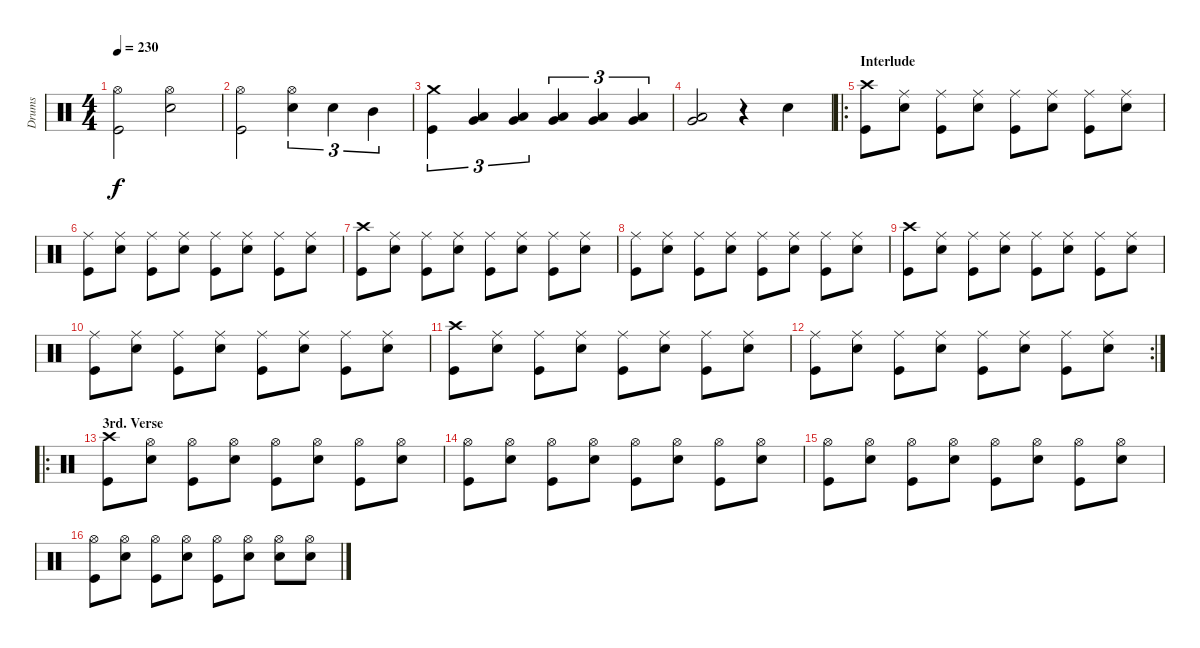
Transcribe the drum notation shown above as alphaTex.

\track ("Drums" "Drums") {instrument percussion}
\staff {score}
\articulation defaults
\ts (4 4)
\tempo 230
\clef neutral
\ks c
("Hi-Hat (open)" "Kick (hit)").2{dy f} ("Hi-Hat (open)" "Electric Snare (hit)").2 |
("Hi-Hat (open)" "Kick (hit)").2 ("Hi-Hat (open)" "Electric Snare (hit)").4{tu (3 2)} "Electric Snare (hit)".4{tu (3 2)} "Mid Tom (hit)".4{tu (3 2)} |
("Crash medium (hit)" "Kick (hit)").4{tu (3 2)} ("Very Low Tom (hit)" "Low Tom (hit)").4{tu (3 2)} ("Very Low Tom (hit)" "Low Tom (hit)").4{tu (3 2)} ("Very Low Tom (hit)" "Low Tom (hit)").4{tu (3 2)} ("Very Low Tom (hit)" "Low Tom (hit)").4{tu (3 2)} ("Very Low Tom (hit)" "Low Tom (hit)").4{tu (3 2)} |
("Very Low Tom (hit)" "Low Tom (hit)").2 r.4 "Electric Snare (hit)".4 |
\ro
\section ("" "Interlude")
("Crash high (hit)" "Kick (hit)").8 ("Ride (middle)" "Electric Snare (hit)").8 ("Ride (middle)" "Kick (hit)").8 ("Ride (middle)" "Electric Snare (hit)").8 ("Ride (middle)" "Kick (hit)").8 ("Ride (middle)" "Electric Snare (hit)").8 ("Ride (middle)" "Kick (hit)").8 ("Ride (middle)" "Electric Snare (hit)").8 |
("Ride (middle)" "Kick (hit)").8 ("Ride (middle)" "Electric Snare (hit)").8 ("Ride (middle)" "Kick (hit)").8 ("Ride (middle)" "Electric Snare (hit)").8 ("Ride (middle)" "Kick (hit)").8 ("Ride (middle)" "Electric Snare (hit)").8 ("Ride (middle)" "Kick (hit)").8 ("Ride (middle)" "Electric Snare (hit)").8 |
("Crash high (hit)" "Kick (hit)").8 ("Ride (middle)" "Electric Snare (hit)").8 ("Ride (middle)" "Kick (hit)").8 ("Ride (middle)" "Electric Snare (hit)").8 ("Ride (middle)" "Kick (hit)").8 ("Ride (middle)" "Electric Snare (hit)").8 ("Ride (middle)" "Kick (hit)").8 ("Ride (middle)" "Electric Snare (hit)").8 |
("Ride (middle)" "Kick (hit)").8 ("Ride (middle)" "Electric Snare (hit)").8 ("Ride (middle)" "Kick (hit)").8 ("Ride (middle)" "Electric Snare (hit)").8 ("Ride (middle)" "Kick (hit)").8 ("Ride (middle)" "Electric Snare (hit)").8 ("Ride (middle)" "Kick (hit)").8 ("Ride (middle)" "Electric Snare (hit)").8 |
("Crash high (hit)" "Kick (hit)").8 ("Ride (middle)" "Electric Snare (hit)").8 ("Ride (middle)" "Kick (hit)").8 ("Ride (middle)" "Electric Snare (hit)").8 ("Ride (middle)" "Kick (hit)").8 ("Ride (middle)" "Electric Snare (hit)").8 ("Ride (middle)" "Kick (hit)").8 ("Ride (middle)" "Electric Snare (hit)").8 |
("Ride (middle)" "Kick (hit)").8 ("Ride (middle)" "Electric Snare (hit)").8 ("Ride (middle)" "Kick (hit)").8 ("Ride (middle)" "Electric Snare (hit)").8 ("Ride (middle)" "Kick (hit)").8 ("Ride (middle)" "Electric Snare (hit)").8 ("Ride (middle)" "Kick (hit)").8 ("Ride (middle)" "Electric Snare (hit)").8 |
("Crash high (hit)" "Kick (hit)").8 ("Ride (middle)" "Electric Snare (hit)").8 ("Ride (middle)" "Kick (hit)").8 ("Ride (middle)" "Electric Snare (hit)").8 ("Ride (middle)" "Kick (hit)").8 ("Ride (middle)" "Electric Snare (hit)").8 ("Ride (middle)" "Kick (hit)").8 ("Ride (middle)" "Electric Snare (hit)").8 |
\rc 2
("Ride (middle)" "Kick (hit)").8 ("Ride (middle)" "Electric Snare (hit)").8 ("Ride (middle)" "Kick (hit)").8 ("Ride (middle)" "Electric Snare (hit)").8 ("Ride (middle)" "Kick (hit)").8 ("Ride (middle)" "Electric Snare (hit)").8 ("Ride (middle)" "Kick (hit)").8 ("Ride (middle)" "Electric Snare (hit)").8 |
\ro
\section ("" "3rd. Verse")
("Crash high (hit)" "Kick (hit)").8 ("Hi-Hat (open)" "Electric Snare (hit)").8 ("Hi-Hat (open)" "Kick (hit)").8 ("Hi-Hat (open)" "Electric Snare (hit)").8 ("Hi-Hat (open)" "Kick (hit)").8 ("Hi-Hat (open)" "Electric Snare (hit)").8 ("Hi-Hat (open)" "Kick (hit)").8 ("Hi-Hat (open)" "Electric Snare (hit)").8 |
("Hi-Hat (open)" "Kick (hit)").8 ("Hi-Hat (open)" "Electric Snare (hit)").8 ("Hi-Hat (open)" "Kick (hit)").8 ("Hi-Hat (open)" "Electric Snare (hit)").8 ("Hi-Hat (open)" "Kick (hit)").8 ("Hi-Hat (open)" "Electric Snare (hit)").8 ("Hi-Hat (open)" "Kick (hit)").8 ("Hi-Hat (open)" "Electric Snare (hit)").8 |
("Hi-Hat (open)" "Kick (hit)").8 ("Hi-Hat (open)" "Electric Snare (hit)").8 ("Hi-Hat (open)" "Kick (hit)").8 ("Hi-Hat (open)" "Electric Snare (hit)").8 ("Hi-Hat (open)" "Kick (hit)").8 ("Hi-Hat (open)" "Electric Snare (hit)").8 ("Hi-Hat (open)" "Kick (hit)").8 ("Hi-Hat (open)" "Electric Snare (hit)").8 |
("Hi-Hat (open)" "Kick (hit)").8 ("Hi-Hat (open)" "Electric Snare (hit)").8 ("Hi-Hat (open)" "Kick (hit)").8 ("Hi-Hat (open)" "Electric Snare (hit)").8 ("Hi-Hat (open)" "Kick (hit)").8 ("Hi-Hat (open)" "Electric Snare (hit)").8 ("Hi-Hat (open)" "Electric Snare (hit)").8 ("Hi-Hat (open)" "Electric Snare (hit)").8
